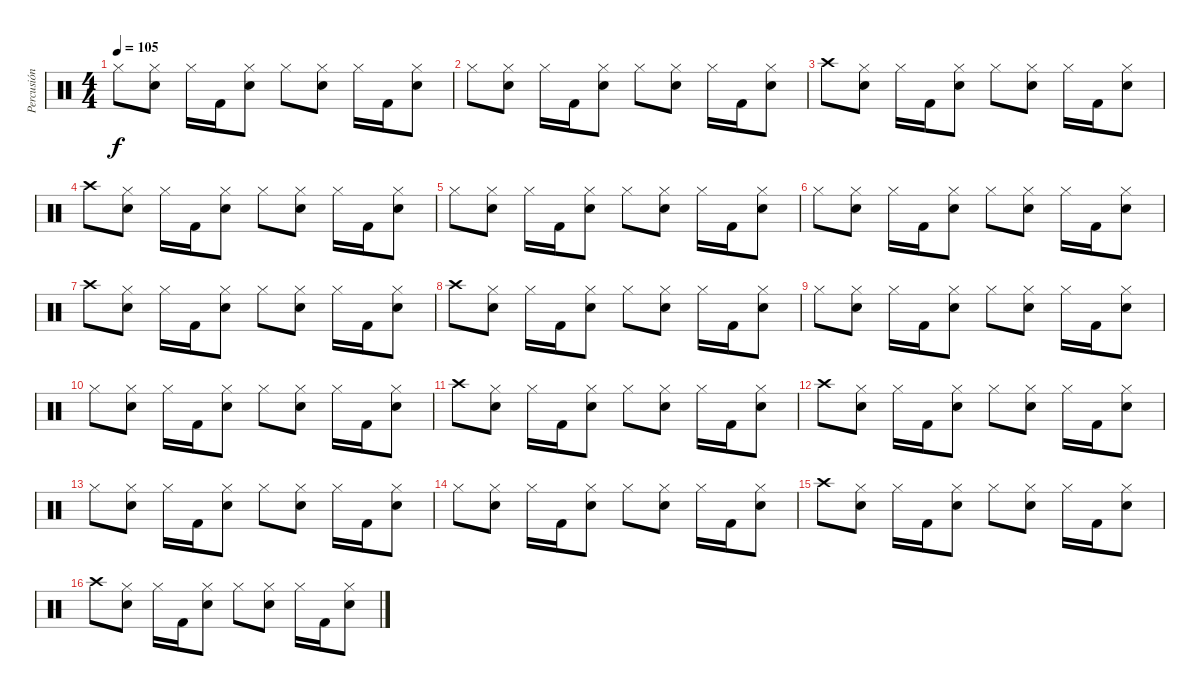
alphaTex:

\track ("Percusión" "Percusión") {instrument percussion}
\staff {score}
\articulation defaults
\ts (4 4)
\tempo 105
\clef neutral
\ks c "Hi-Hat (closed)".8{dy f}
("Hi-Hat (closed)" "Snare (hit) 2").8 "Hi-Hat (closed)".16 "Kick (hit) 2".16 ("Hi-Hat (closed)" "Snare (hit) 2").8 "Hi-Hat (closed)".8 ("Hi-Hat (closed)" "Snare (hit) 2").8 "Hi-Hat (closed)".16 "Kick (hit) 2".16 ("Hi-Hat (closed)" "Snare (hit) 2").8 |
"Hi-Hat (closed)".8 ("Hi-Hat (closed)" "Snare (hit) 2").8 "Hi-Hat (closed)".16 "Kick (hit) 2".16 ("Hi-Hat (closed)" "Snare (hit) 2").8 "Hi-Hat (closed)".8 ("Hi-Hat (closed)" "Snare (hit) 2").8 "Hi-Hat (closed)".16 "Kick (hit) 2".16 ("Hi-Hat (closed)" "Snare (hit) 2").8 |
"Crash high (hit)".8 ("Hi-Hat (closed)" "Snare (hit) 2").8 "Hi-Hat (closed)".16 "Kick (hit) 2".16 ("Hi-Hat (closed)" "Snare (hit) 2").8 "Hi-Hat (closed)".8 ("Hi-Hat (closed)" "Snare (hit) 2").8 "Hi-Hat (closed)".16 "Kick (hit) 2".16 ("Hi-Hat (closed)" "Snare (hit) 2").8 |
"Crash high (hit)".8 ("Hi-Hat (closed)" "Snare (hit) 2").8 "Hi-Hat (closed)".16 "Kick (hit) 2".16 ("Hi-Hat (closed)" "Snare (hit) 2").8 "Hi-Hat (closed)".8 ("Hi-Hat (closed)" "Snare (hit) 2").8 "Hi-Hat (closed)".16 "Kick (hit) 2".16 ("Hi-Hat (closed)" "Snare (hit) 2").8 |
"Hi-Hat (closed)".8 ("Hi-Hat (closed)" "Snare (hit) 2").8 "Hi-Hat (closed)".16 "Kick (hit) 2".16 ("Hi-Hat (closed)" "Snare (hit) 2").8 "Hi-Hat (closed)".8 ("Hi-Hat (closed)" "Snare (hit) 2").8 "Hi-Hat (closed)".16 "Kick (hit) 2".16 ("Hi-Hat (closed)" "Snare (hit) 2").8 |
"Hi-Hat (closed)".8 ("Hi-Hat (closed)" "Snare (hit) 2").8 "Hi-Hat (closed)".16 "Kick (hit) 2".16 ("Hi-Hat (closed)" "Snare (hit) 2").8 "Hi-Hat (closed)".8 ("Hi-Hat (closed)" "Snare (hit) 2").8 "Hi-Hat (closed)".16 "Kick (hit) 2".16 ("Hi-Hat (closed)" "Snare (hit) 2").8 |
"Crash high (hit)".8 ("Hi-Hat (closed)" "Snare (hit) 2").8 "Hi-Hat (closed)".16 "Kick (hit) 2".16 ("Hi-Hat (closed)" "Snare (hit) 2").8 "Hi-Hat (closed)".8 ("Hi-Hat (closed)" "Snare (hit) 2").8 "Hi-Hat (closed)".16 "Kick (hit) 2".16 ("Hi-Hat (closed)" "Snare (hit) 2").8 |
"Crash high (hit)".8 ("Hi-Hat (closed)" "Snare (hit) 2").8 "Hi-Hat (closed)".16 "Kick (hit) 2".16 ("Hi-Hat (closed)" "Snare (hit) 2").8 "Hi-Hat (closed)".8 ("Hi-Hat (closed)" "Snare (hit) 2").8 "Hi-Hat (closed)".16 "Kick (hit) 2".16 ("Hi-Hat (closed)" "Snare (hit) 2").8 |
"Hi-Hat (closed)".8 ("Hi-Hat (closed)" "Snare (hit) 2").8 "Hi-Hat (closed)".16 "Kick (hit) 2".16 ("Hi-Hat (closed)" "Snare (hit) 2").8 "Hi-Hat (closed)".8 ("Hi-Hat (closed)" "Snare (hit) 2").8 "Hi-Hat (closed)".16 "Kick (hit) 2".16 ("Hi-Hat (closed)" "Snare (hit) 2").8 |
"Hi-Hat (closed)".8 ("Hi-Hat (closed)" "Snare (hit) 2").8 "Hi-Hat (closed)".16 "Kick (hit) 2".16 ("Hi-Hat (closed)" "Snare (hit) 2").8 "Hi-Hat (closed)".8 ("Hi-Hat (closed)" "Snare (hit) 2").8 "Hi-Hat (closed)".16 "Kick (hit) 2".16 ("Hi-Hat (closed)" "Snare (hit) 2").8 |
"Crash high (hit)".8 ("Hi-Hat (closed)" "Snare (hit) 2").8 "Hi-Hat (closed)".16 "Kick (hit) 2".16 ("Hi-Hat (closed)" "Snare (hit) 2").8 "Hi-Hat (closed)".8 ("Hi-Hat (closed)" "Snare (hit) 2").8 "Hi-Hat (closed)".16 "Kick (hit) 2".16 ("Hi-Hat (closed)" "Snare (hit) 2").8 |
"Crash high (hit)".8 ("Hi-Hat (closed)" "Snare (hit) 2").8 "Hi-Hat (closed)".16 "Kick (hit) 2".16 ("Hi-Hat (closed)" "Snare (hit) 2").8 "Hi-Hat (closed)".8 ("Hi-Hat (closed)" "Snare (hit) 2").8 "Hi-Hat (closed)".16 "Kick (hit) 2".16 ("Hi-Hat (closed)" "Snare (hit) 2").8 |
"Hi-Hat (closed)".8 ("Hi-Hat (closed)" "Snare (hit) 2").8 "Hi-Hat (closed)".16 "Kick (hit) 2".16 ("Hi-Hat (closed)" "Snare (hit) 2").8 "Hi-Hat (closed)".8 ("Hi-Hat (closed)" "Snare (hit) 2").8 "Hi-Hat (closed)".16 "Kick (hit) 2".16 ("Hi-Hat (closed)" "Snare (hit) 2").8 |
"Hi-Hat (closed)".8 ("Hi-Hat (closed)" "Snare (hit) 2").8 "Hi-Hat (closed)".16 "Kick (hit) 2".16 ("Hi-Hat (closed)" "Snare (hit) 2").8 "Hi-Hat (closed)".8 ("Hi-Hat (closed)" "Snare (hit) 2").8 "Hi-Hat (closed)".16 "Kick (hit) 2".16 ("Hi-Hat (closed)" "Snare (hit) 2").8 |
"Crash high (hit)".8 ("Hi-Hat (closed)" "Snare (hit) 2").8 "Hi-Hat (closed)".16 "Kick (hit) 2".16 ("Hi-Hat (closed)" "Snare (hit) 2").8 "Hi-Hat (closed)".8 ("Hi-Hat (closed)" "Snare (hit) 2").8 "Hi-Hat (closed)".16 "Kick (hit) 2".16 ("Hi-Hat (closed)" "Snare (hit) 2").8 |
"Crash high (hit)".8 ("Hi-Hat (closed)" "Snare (hit) 2").8 "Hi-Hat (closed)".16 "Kick (hit) 2".16 ("Hi-Hat (closed)" "Snare (hit) 2").8 "Hi-Hat (closed)".8 ("Hi-Hat (closed)" "Snare (hit) 2").8 "Hi-Hat (closed)".16 "Kick (hit) 2".16 ("Hi-Hat (closed)" "Snare (hit) 2").8
